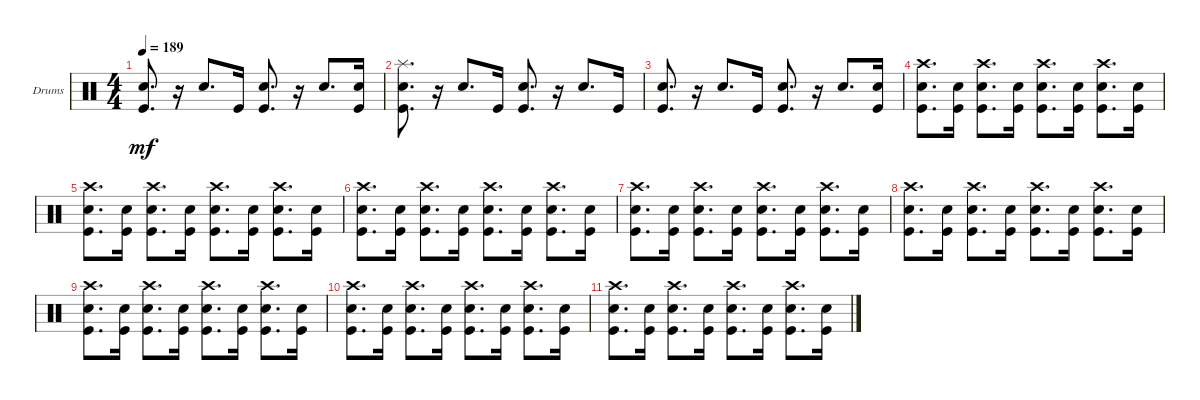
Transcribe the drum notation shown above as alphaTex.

\defaultSystemsLayout 4
\bracketExtendMode groupsimilarinstruments
\firstSystemTrackNameOrientation horizontal
\otherSystemsTrackNameOrientation horizontal
\track ("Drumkit" "Drums") {instrument percussion}
\staff {score}
\articulation defaults
\ts (4 4)
\tempo 189
\clef neutral
\scale
0.333333
\ks c
("Kick (hit)" "Snare (hit) 2").8{d dy mf} r.16 "Snare (hit) 2".8{d} "Kick (hit)".16 ("Kick (hit)" "Snare (hit) 2").8{d} r.16 "Snare (hit) 2".8{d} ("Kick (hit)" "Snare (hit) 2").16 |
\scale
0.333333 ("Kick (hit)" "Snare (hit) 2" "Splash (hit)").8{d} r.16 "Snare (hit) 2".8{d} "Kick (hit)".16 ("Kick (hit)" "Snare (hit) 2").8{d} r.16 "Snare (hit) 2".8{d} "Kick (hit)".16 |
\scale
0.333333 ("Kick (hit)" "Snare (hit) 2").8{d} r.16 "Snare (hit) 2".8{d} "Kick (hit)".16 ("Kick (hit)" "Snare (hit) 2").8{d} r.16 "Snare (hit) 2".8{d} ("Kick (hit)" "Snare (hit) 2").16 |
\scale
0.333333 ("Kick (hit)" "Crash high (hit)" "Snare (hit) 2").8{d} ("Snare (hit) 2" "Kick (hit)").16 ("Kick (hit)" "Crash high (hit)" "Snare (hit) 2").8{d} ("Snare (hit) 2" "Kick (hit)").16 ("Kick (hit)" "Crash high (hit)" "Snare (hit) 2").8{d} ("Snare (hit) 2" "Kick (hit)").16 ("Kick (hit)" "Crash high (hit)" "Snare (hit) 2").8{d} ("Snare (hit) 2" "Kick (hit)").16 |
\scale
0.333333 ("Kick (hit)" "Crash high (hit)" "Snare (hit) 2").8{d} ("Snare (hit) 2" "Kick (hit)").16 ("Kick (hit)" "Crash high (hit)" "Snare (hit) 2").8{d} ("Snare (hit) 2" "Kick (hit)").16 ("Kick (hit)" "Crash high (hit)" "Snare (hit) 2").8{d} ("Snare (hit) 2" "Kick (hit)").16 ("Kick (hit)" "Crash high (hit)" "Snare (hit) 2").8{d} ("Snare (hit) 2" "Kick (hit)").16 |
\scale
0.333333 ("Kick (hit)" "Crash high (hit)" "Snare (hit) 2").8{d} ("Snare (hit) 2" "Kick (hit)").16 ("Kick (hit)" "Crash high (hit)" "Snare (hit) 2").8{d} ("Snare (hit) 2" "Kick (hit)").16 ("Kick (hit)" "Crash high (hit)" "Snare (hit) 2").8{d} ("Snare (hit) 2" "Kick (hit)").16 ("Kick (hit)" "Crash high (hit)" "Snare (hit) 2").8{d} ("Snare (hit) 2" "Kick (hit)").16 |
\scale
0.333333 ("Kick (hit)" "Crash high (hit)" "Snare (hit) 2").8{d} ("Snare (hit) 2" "Kick (hit)").16 ("Kick (hit)" "Crash high (hit)" "Snare (hit) 2").8{d} ("Snare (hit) 2" "Kick (hit)").16 ("Kick (hit)" "Crash high (hit)" "Snare (hit) 2").8{d} ("Snare (hit) 2" "Kick (hit)").16 ("Kick (hit)" "Crash high (hit)" "Snare (hit) 2").8{d} ("Snare (hit) 2" "Kick (hit)").16 |
\scale
0.333333 ("Kick (hit)" "Crash high (hit)" "Snare (hit) 2").8{d} ("Snare (hit) 2" "Kick (hit)").16 ("Kick (hit)" "Crash high (hit)" "Snare (hit) 2").8{d} ("Snare (hit) 2" "Kick (hit)").16 ("Kick (hit)" "Crash high (hit)" "Snare (hit) 2").8{d} ("Snare (hit) 2" "Kick (hit)").16 ("Kick (hit)" "Crash high (hit)" "Snare (hit) 2").8{d} ("Snare (hit) 2" "Kick (hit)").16 |
\scale
0.333333 ("Kick (hit)" "Crash high (hit)" "Snare (hit) 2").8{d} ("Snare (hit) 2" "Kick (hit)").16 ("Kick (hit)" "Crash high (hit)" "Snare (hit) 2").8{d} ("Snare (hit) 2" "Kick (hit)").16 ("Kick (hit)" "Crash high (hit)" "Snare (hit) 2").8{d} ("Snare (hit) 2" "Kick (hit)").16 ("Kick (hit)" "Crash high (hit)" "Snare (hit) 2").8{d} ("Snare (hit) 2" "Kick (hit)").16 |
\scale
0.333333 ("Kick (hit)" "Crash high (hit)" "Snare (hit) 2").8{d} ("Snare (hit) 2" "Kick (hit)").16 ("Kick (hit)" "Crash high (hit)" "Snare (hit) 2").8{d} ("Snare (hit) 2" "Kick (hit)").16 ("Kick (hit)" "Crash high (hit)" "Snare (hit) 2").8{d} ("Snare (hit) 2" "Kick (hit)").16 ("Kick (hit)" "Crash high (hit)" "Snare (hit) 2").8{d} ("Snare (hit) 2" "Kick (hit)").16 |
\scale
0.333333 ("Kick (hit)" "Crash high (hit)" "Snare (hit) 2").8{d} ("Snare (hit) 2" "Kick (hit)").16 ("Kick (hit)" "Crash high (hit)" "Snare (hit) 2").8{d} ("Snare (hit) 2" "Kick (hit)").16 ("Kick (hit)" "Crash high (hit)" "Snare (hit) 2").8{d} ("Snare (hit) 2" "Kick (hit)").16 ("Kick (hit)" "Crash high (hit)" "Snare (hit) 2").8{d} ("Snare (hit) 2" "Kick (hit)").16 |
\scale
0.333333 |
\scale
0.333333 |
\scale
0.333333 |
\scale
0.333333 |
\scale
0.333333
